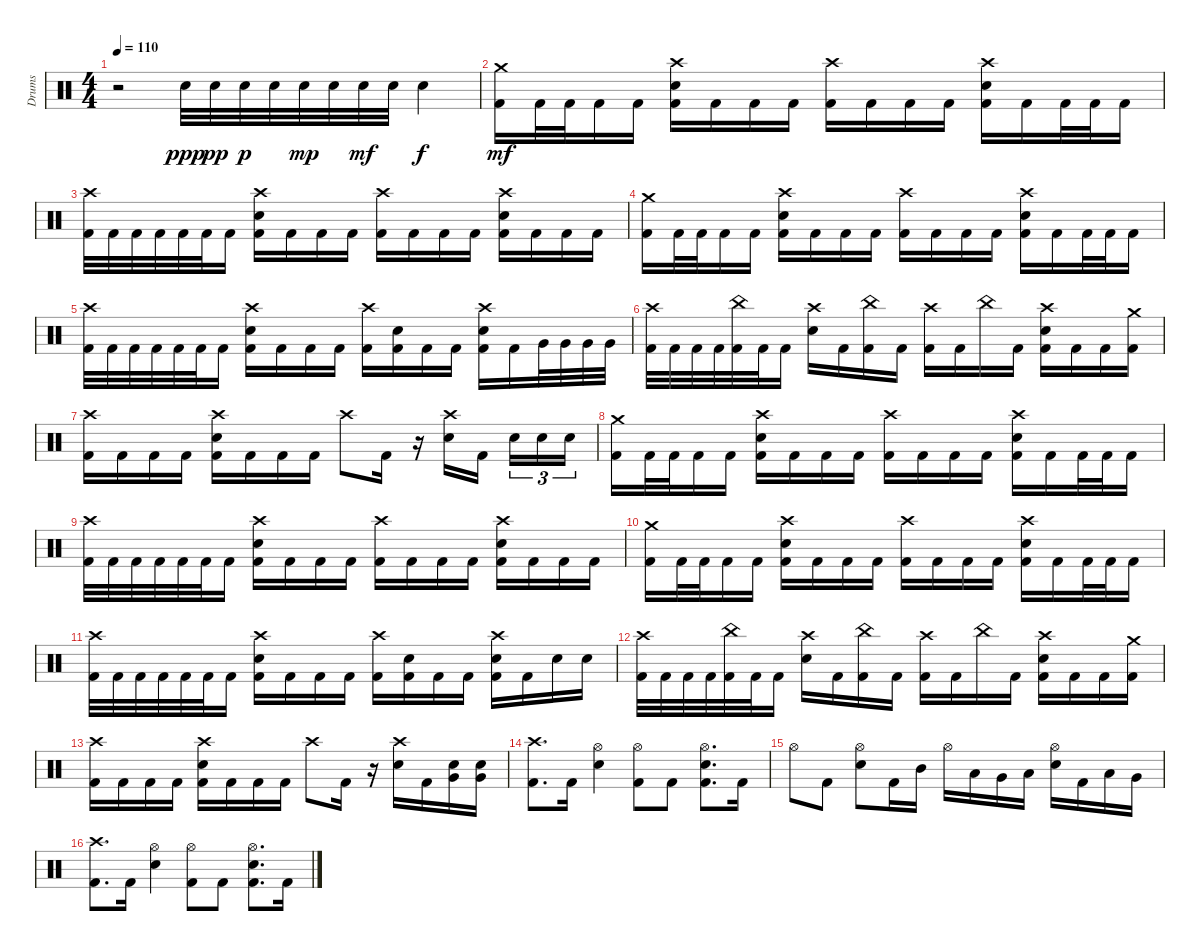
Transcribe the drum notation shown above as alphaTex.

\track ("Drums" "Drums") {instrument percussion}
\staff {score}
\articulation defaults
\ts (4 4)
\tempo 110
\clef neutral
\ks c
r.2{dy f} "Electric Snare (hit)".32{dy ppp} "Electric Snare (hit)".32{dy pp} "Electric Snare (hit)".32{dy p} "Electric Snare (hit)".32 "Electric Snare (hit)".32{dy mp} "Electric Snare (hit)".32 "Electric Snare (hit)".32{dy mf} "Electric Snare (hit)".32 "Electric Snare (hit)".4{dy f} |
("Crash medium (hit)" "Kick (hit) 2").16{dy mf} "Kick (hit) 2".32 "Kick (hit) 2".32 "Kick (hit) 2".16 "Kick (hit) 2".16 ("Crash high (hit)" "Electric Snare (hit)" "Kick (hit) 2").16 "Kick (hit) 2".16 "Kick (hit) 2".16 "Kick (hit) 2".16 ("Crash high (hit)" "Kick (hit) 2").16 "Kick (hit) 2".16 "Kick (hit) 2".16 "Kick (hit) 2".16 ("Crash high (hit)" "Electric Snare (hit)" "Kick (hit) 2").16 "Kick (hit) 2".16 "Kick (hit) 2".32 "Kick (hit) 2".32 "Kick (hit) 2".16 |
("Crash high (hit)" "Kick (hit) 2").32 "Kick (hit) 2".32 "Kick (hit) 2".32 "Kick (hit) 2".32 "Kick (hit) 2".32 "Kick (hit) 2".32 "Kick (hit) 2".16 ("Crash high (hit)" "Electric Snare (hit)" "Kick (hit) 2").16 "Kick (hit) 2".16 "Kick (hit) 2".16 "Kick (hit) 2".16 ("Crash high (hit)" "Kick (hit) 2").16 "Kick (hit) 2".16 "Kick (hit) 2".16 "Kick (hit) 2".16 ("Crash high (hit)" "Electric Snare (hit)" "Kick (hit) 2").16 "Kick (hit) 2".16 "Kick (hit) 2".16 "Kick (hit) 2".16 |
("Crash medium (hit)" "Kick (hit) 2").16 "Kick (hit) 2".32 "Kick (hit) 2".32 "Kick (hit) 2".16 "Kick (hit) 2".16 ("Crash high (hit)" "Electric Snare (hit)" "Kick (hit) 2").16 "Kick (hit) 2".16 "Kick (hit) 2".16 "Kick (hit) 2".16 ("Crash high (hit)" "Kick (hit) 2").16 "Kick (hit) 2".16 "Kick (hit) 2".16 "Kick (hit) 2".16 ("Crash high (hit)" "Electric Snare (hit)" "Kick (hit) 2").16 "Kick (hit) 2".16 "Kick (hit) 2".32 "Kick (hit) 2".32 "Kick (hit) 2".16 |
("Crash high (hit)" "Kick (hit) 2").32 "Kick (hit) 2".32 "Kick (hit) 2".32 "Kick (hit) 2".32 "Kick (hit) 2".32 "Kick (hit) 2".32 "Kick (hit) 2".16 ("Crash high (hit)" "Electric Snare (hit)" "Kick (hit) 2").16 "Kick (hit) 2".16 "Kick (hit) 2".16 "Kick (hit) 2".16 ("Crash high (hit)" "Kick (hit) 2").16 ("Electric Snare (hit)" "Kick (hit) 2").16 "Kick (hit) 2".16 "Kick (hit) 2".16 ("Crash high (hit)" "Electric Snare (hit)" "Kick (hit) 2").16 "Kick (hit) 2".16 "Very Low Tom (hit)".32 "Very Low Tom (hit)".32 "Very Low Tom (hit)".32 "Very Low Tom (hit)".32 |
("Crash high (hit)" "Kick (hit) 2").32 "Kick (hit) 2".32 "Kick (hit) 2".32 "Kick (hit) 2".32 ("China (hit)" "Kick (hit) 2").32 "Kick (hit) 2".32 "Kick (hit) 2".16 ("Crash high (hit)" "Electric Snare (hit)").16 "Kick (hit) 2".16 ("China (hit)" "Kick (hit) 2").16 "Kick (hit) 2".16 ("Crash high (hit)" "Kick (hit) 2").16 "Kick (hit) 2".16 "China (hit)".16 "Kick (hit) 2".16 ("Crash high (hit)" "Electric Snare (hit)" "Kick (hit) 2").16 "Kick (hit) 2".16 "Kick (hit) 2".16 ("Crash medium (hit)" "Kick (hit) 2").16 |
("Crash high (hit)" "Kick (hit) 2").16 "Kick (hit) 2".16 "Kick (hit) 2".16 "Kick (hit) 2".16 ("Crash high (hit)" "Electric Snare (hit)" "Kick (hit) 2").16 "Kick (hit) 2".16 "Kick (hit) 2".16 "Kick (hit) 2".16 "Crash high (hit)".8 "Kick (hit) 2".16 r.16 ("Crash high (hit)" "Electric Snare (hit)").16 "Kick (hit) 2".16{beam splitsecondary} "Electric Snare (hit)".16{tu (3 2)} "Electric Snare (hit)".16{tu (3 2)} "Electric Snare (hit)".16{tu (3 2)} |
("Crash medium (hit)" "Kick (hit) 2").16 "Kick (hit) 2".32 "Kick (hit) 2".32 "Kick (hit) 2".16 "Kick (hit) 2".16 ("Crash high (hit)" "Electric Snare (hit)" "Kick (hit) 2").16 "Kick (hit) 2".16 "Kick (hit) 2".16 "Kick (hit) 2".16 ("Crash high (hit)" "Kick (hit) 2").16 "Kick (hit) 2".16 "Kick (hit) 2".16 "Kick (hit) 2".16 ("Crash high (hit)" "Electric Snare (hit)" "Kick (hit) 2").16 "Kick (hit) 2".16 "Kick (hit) 2".32 "Kick (hit) 2".32 "Kick (hit) 2".16 |
("Crash high (hit)" "Kick (hit) 2").32 "Kick (hit) 2".32 "Kick (hit) 2".32 "Kick (hit) 2".32 "Kick (hit) 2".32 "Kick (hit) 2".32 "Kick (hit) 2".16 ("Crash high (hit)" "Electric Snare (hit)" "Kick (hit) 2").16 "Kick (hit) 2".16 "Kick (hit) 2".16 "Kick (hit) 2".16 ("Crash high (hit)" "Kick (hit) 2").16 "Kick (hit) 2".16 "Kick (hit) 2".16 "Kick (hit) 2".16 ("Crash high (hit)" "Electric Snare (hit)" "Kick (hit) 2").16 "Kick (hit) 2".16 "Kick (hit) 2".16 "Kick (hit) 2".16 |
("Crash medium (hit)" "Kick (hit) 2").16 "Kick (hit) 2".32 "Kick (hit) 2".32 "Kick (hit) 2".16 "Kick (hit) 2".16 ("Crash high (hit)" "Electric Snare (hit)" "Kick (hit) 2").16 "Kick (hit) 2".16 "Kick (hit) 2".16 "Kick (hit) 2".16 ("Crash high (hit)" "Kick (hit) 2").16 "Kick (hit) 2".16 "Kick (hit) 2".16 "Kick (hit) 2".16 ("Crash high (hit)" "Electric Snare (hit)" "Kick (hit) 2").16 "Kick (hit) 2".16 "Kick (hit) 2".32 "Kick (hit) 2".32 "Kick (hit) 2".16 |
("Crash high (hit)" "Kick (hit) 2").32 "Kick (hit) 2".32 "Kick (hit) 2".32 "Kick (hit) 2".32 "Kick (hit) 2".32 "Kick (hit) 2".32 "Kick (hit) 2".16 ("Crash high (hit)" "Electric Snare (hit)" "Kick (hit) 2").16 "Kick (hit) 2".16 "Kick (hit) 2".16 "Kick (hit) 2".16 ("Crash high (hit)" "Kick (hit) 2").16 ("Electric Snare (hit)" "Kick (hit) 2").16 "Kick (hit) 2".16 "Kick (hit) 2".16 ("Crash high (hit)" "Electric Snare (hit)" "Kick (hit) 2").16 "Kick (hit) 2".16 "Electric Snare (hit)".16 "Electric Snare (hit)".16 |
("Crash high (hit)" "Kick (hit) 2").32 "Kick (hit) 2".32 "Kick (hit) 2".32 "Kick (hit) 2".32 ("China (hit)" "Kick (hit) 2").32 "Kick (hit) 2".32 "Kick (hit) 2".16 ("Crash high (hit)" "Electric Snare (hit)").16 "Kick (hit) 2".16 ("China (hit)" "Kick (hit) 2").16 "Kick (hit) 2".16 ("Crash high (hit)" "Kick (hit) 2").16 "Kick (hit) 2".16 "China (hit)".16 "Kick (hit) 2".16 ("Crash high (hit)" "Electric Snare (hit)" "Kick (hit) 2").16 "Kick (hit) 2".16 "Kick (hit) 2".16 ("Crash medium (hit)" "Kick (hit) 2").16 |
("Crash high (hit)" "Kick (hit) 2").16 "Kick (hit) 2".16 "Kick (hit) 2".16 "Kick (hit) 2".16 ("Crash high (hit)" "Electric Snare (hit)" "Kick (hit) 2").16 "Kick (hit) 2".16 "Kick (hit) 2".16 "Kick (hit) 2".16 "Crash high (hit)".8 "Kick (hit) 2".16 r.16 ("Crash high (hit)" "Electric Snare (hit)").16 "Kick (hit) 2".16 ("Electric Snare (hit)" "Very Low Tom (hit)").16 ("Electric Snare (hit)" "Very Low Tom (hit)").16 |
("Crash high (hit)" "Kick (hit) 2").8{d} "Kick (hit) 2".16 ("Hi-Hat (open)" "Electric Snare (hit)").4 ("Hi-Hat (open)" "Kick (hit) 2").8 "Kick (hit) 2".8 ("Hi-Hat (open)" "Electric Snare (hit)" "Kick (hit) 2").8{d} "Kick (hit) 2".16 |
"Hi-Hat (open)".8 "Kick (hit) 2".8 ("Hi-Hat (open)" "Electric Snare (hit)").8 "Kick (hit) 2".16 "Mid Tom (hit)".16 "Hi-Hat (open)".16 "Low Tom (hit)".16 "Very Low Tom (hit)".16 "Low Tom (hit)".16 ("Hi-Hat (open)" "Electric Snare (hit)").16 "Kick (hit) 2".16 "Low Tom (hit)".16 "Very Low Tom (hit)".16 |
("Crash high (hit)" "Kick (hit) 2").8{d} "Kick (hit) 2".16 ("Hi-Hat (open)" "Electric Snare (hit)").4 ("Hi-Hat (open)" "Kick (hit) 2").8 "Kick (hit) 2".8 ("Hi-Hat (open)" "Electric Snare (hit)" "Kick (hit) 2").8{d} "Kick (hit) 2".16
